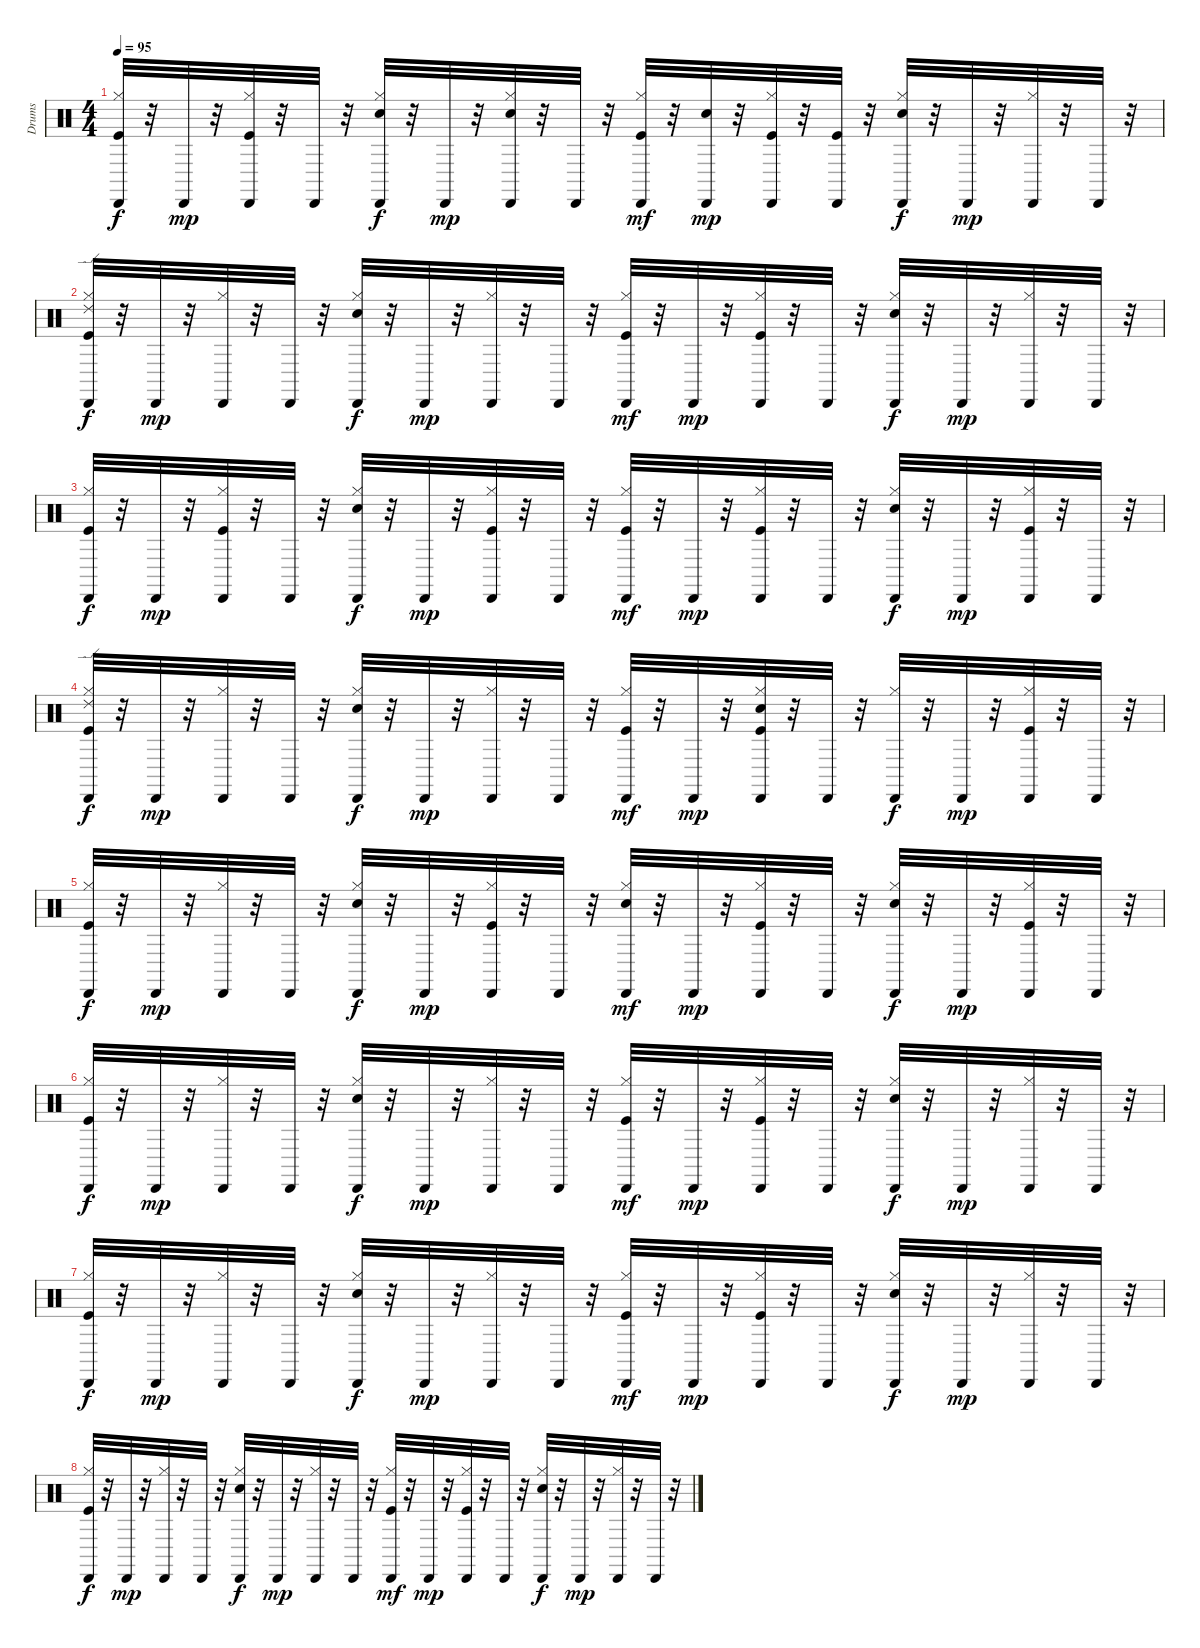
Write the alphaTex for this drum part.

\track ("Drums" "Drums") {instrument percussion}
\staff {score}
\articulation defaults
\ts (4 4)
\tempo 95
\clef neutral
\ks c
("Hi-Hat (closed)" "Kick (hit)" "Cabasa (hit)").32{dy f} r.32 "Cabasa (hit)".32{dy mp} r.32 ("Hi-Hat (closed)" "Kick (hit)" "Cabasa (hit)").32 r.32 "Cabasa (hit)".32 r.32 ("Hi-Hat (closed)" "Electric Snare (hit)" "Cabasa (hit)").32{dy f} r.32 "Cabasa (hit)".32{dy mp} r.32 ("Hi-Hat (closed)" "Electric Snare (hit)" "Cabasa (hit)").32 r.32 "Cabasa (hit)".32 r.32 ("Hi-Hat (closed)" "Kick (hit)" "Cabasa (hit)").32{dy mf} r.32 ("Electric Snare (hit)" "Cabasa (hit)").32{dy mp} r.32 ("Hi-Hat (closed)" "Kick (hit)" "Cabasa (hit)").32 r.32 ("Kick (hit)" "Cabasa (hit)").32 r.32 ("Hi-Hat (closed)" "Electric Snare (hit)" "Cabasa (hit)").32{dy f} r.32 "Cabasa (hit)".32{dy mp} r.32 ("Hi-Hat (closed)" "Cabasa (hit)").32 r.32 "Cabasa (hit)".32 r.32 |
("Kick (hit)" "Hi-Hat (closed)" "Ride (edge) 2" "Cabasa (hit)").32{dy f} r.32 "Cabasa (hit)".32{dy mp} r.32 ("Hi-Hat (closed)" "Cabasa (hit)").32 r.32 "Cabasa (hit)".32 r.32 ("Hi-Hat (closed)" "Electric Snare (hit)" "Cabasa (hit)").32{dy f} r.32 "Cabasa (hit)".32{dy mp} r.32 ("Hi-Hat (closed)" "Cabasa (hit)").32 r.32 "Cabasa (hit)".32 r.32 ("Hi-Hat (closed)" "Kick (hit)" "Cabasa (hit)").32{dy mf} r.32 "Cabasa (hit)".32{dy mp} r.32 ("Hi-Hat (closed)" "Kick (hit)" "Cabasa (hit)").32 r.32 "Cabasa (hit)".32 r.32 ("Hi-Hat (closed)" "Electric Snare (hit)" "Cabasa (hit)").32{dy f} r.32 "Cabasa (hit)".32{dy mp} r.32 ("Hi-Hat (closed)" "Cabasa (hit)").32 r.32 "Cabasa (hit)".32 r.32 |
("Hi-Hat (closed)" "Kick (hit)" "Cabasa (hit)").32{dy f} r.32 "Cabasa (hit)".32{dy mp} r.32 ("Hi-Hat (closed)" "Kick (hit)" "Cabasa (hit)").32 r.32 "Cabasa (hit)".32 r.32 ("Hi-Hat (closed)" "Electric Snare (hit)" "Cabasa (hit)").32{dy f} r.32 "Cabasa (hit)".32{dy mp} r.32 ("Hi-Hat (closed)" "Kick (hit)" "Cabasa (hit)").32 r.32 "Cabasa (hit)".32 r.32 ("Hi-Hat (closed)" "Kick (hit)" "Cabasa (hit)").32{dy mf} r.32 "Cabasa (hit)".32{dy mp} r.32 ("Hi-Hat (closed)" "Kick (hit)" "Cabasa (hit)").32 r.32 "Cabasa (hit)".32 r.32 ("Hi-Hat (closed)" "Electric Snare (hit)" "Cabasa (hit)").32{dy f} r.32 "Cabasa (hit)".32{dy mp} r.32 ("Hi-Hat (closed)" "Kick (hit)" "Cabasa (hit)").32 r.32 "Cabasa (hit)".32 r.32 |
("Kick (hit)" "Hi-Hat (closed)" "Ride (edge) 2" "Cabasa (hit)").32{dy f} r.32 "Cabasa (hit)".32{dy mp} r.32 ("Hi-Hat (closed)" "Cabasa (hit)").32 r.32 "Cabasa (hit)".32 r.32 ("Hi-Hat (closed)" "Electric Snare (hit)" "Cabasa (hit)").32{dy f} r.32 "Cabasa (hit)".32{dy mp} r.32 ("Hi-Hat (closed)" "Cabasa (hit)").32 r.32 "Cabasa (hit)".32 r.32 ("Hi-Hat (closed)" "Kick (hit)" "Cabasa (hit)").32{dy mf} r.32 "Cabasa (hit)".32{dy mp} r.32 ("Hi-Hat (closed)" "Electric Snare (hit)" "Kick (hit)" "Cabasa (hit)").32 r.32 "Cabasa (hit)".32 r.32 ("Hi-Hat (closed)" "Cabasa (hit)").32{dy f} r.32 "Cabasa (hit)".32{dy mp} r.32 ("Hi-Hat (closed)" "Kick (hit)" "Cabasa (hit)").32 r.32 "Cabasa (hit)".32 r.32 |
("Hi-Hat (closed)" "Kick (hit)" "Cabasa (hit)").32{dy f} r.32 "Cabasa (hit)".32{dy mp} r.32 ("Hi-Hat (closed)" "Cabasa (hit)").32 r.32 "Cabasa (hit)".32 r.32 ("Hi-Hat (closed)" "Electric Snare (hit)" "Cabasa (hit)").32{dy f} r.32 "Cabasa (hit)".32{dy mp} r.32 ("Hi-Hat (closed)" "Kick (hit)" "Cabasa (hit)").32 r.32 "Cabasa (hit)".32 r.32 ("Hi-Hat (closed)" "Electric Snare (hit)" "Cabasa (hit)").32{dy mf} r.32 "Cabasa (hit)".32{dy mp} r.32 ("Hi-Hat (closed)" "Kick (hit)" "Cabasa (hit)").32 r.32 "Cabasa (hit)".32 r.32 ("Hi-Hat (closed)" "Electric Snare (hit)" "Cabasa (hit)").32{dy f} r.32 "Cabasa (hit)".32{dy mp} r.32 ("Hi-Hat (closed)" "Kick (hit)" "Cabasa (hit)").32 r.32 "Cabasa (hit)".32 r.32 |
("Kick (hit)" "Hi-Hat (closed)" "Cabasa (hit)").32{dy f} r.32 "Cabasa (hit)".32{dy mp} r.32 ("Hi-Hat (closed)" "Cabasa (hit)").32 r.32 "Cabasa (hit)".32 r.32 ("Hi-Hat (closed)" "Electric Snare (hit)" "Cabasa (hit)").32{dy f} r.32 "Cabasa (hit)".32{dy mp} r.32 ("Hi-Hat (closed)" "Cabasa (hit)").32 r.32 "Cabasa (hit)".32 r.32 ("Hi-Hat (closed)" "Kick (hit)" "Cabasa (hit)").32{dy mf} r.32 "Cabasa (hit)".32{dy mp} r.32 ("Hi-Hat (closed)" "Kick (hit)" "Cabasa (hit)").32 r.32 "Cabasa (hit)".32 r.32 ("Hi-Hat (closed)" "Electric Snare (hit)" "Cabasa (hit)").32{dy f} r.32 "Cabasa (hit)".32{dy mp} r.32 ("Hi-Hat (closed)" "Cabasa (hit)").32 r.32 "Cabasa (hit)".32 r.32 |
("Hi-Hat (closed)" "Kick (hit)" "Cabasa (hit)").32{dy f} r.32 "Cabasa (hit)".32{dy mp} r.32 ("Hi-Hat (closed)" "Cabasa (hit)").32 r.32 "Cabasa (hit)".32 r.32 ("Hi-Hat (closed)" "Electric Snare (hit)" "Cabasa (hit)").32{dy f} r.32 "Cabasa (hit)".32{dy mp} r.32 ("Hi-Hat (closed)" "Cabasa (hit)").32 r.32 "Cabasa (hit)".32 r.32 ("Hi-Hat (closed)" "Kick (hit)" "Cabasa (hit)").32{dy mf} r.32 "Cabasa (hit)".32{dy mp} r.32 ("Hi-Hat (closed)" "Kick (hit)" "Cabasa (hit)").32 r.32 "Cabasa (hit)".32 r.32 ("Hi-Hat (closed)" "Electric Snare (hit)" "Cabasa (hit)").32{dy f} r.32 "Cabasa (hit)".32{dy mp} r.32 ("Hi-Hat (closed)" "Cabasa (hit)").32 r.32 "Cabasa (hit)".32 r.32 |
("Kick (hit)" "Hi-Hat (closed)" "Cabasa (hit)").32{dy f} r.32 "Cabasa (hit)".32{dy mp} r.32 ("Hi-Hat (closed)" "Cabasa (hit)").32 r.32 "Cabasa (hit)".32 r.32 ("Hi-Hat (closed)" "Electric Snare (hit)" "Cabasa (hit)").32{dy f} r.32 "Cabasa (hit)".32{dy mp} r.32 ("Hi-Hat (closed)" "Cabasa (hit)").32 r.32 "Cabasa (hit)".32 r.32 ("Hi-Hat (closed)" "Kick (hit)" "Cabasa (hit)").32{dy mf} r.32 "Cabasa (hit)".32{dy mp} r.32 ("Hi-Hat (closed)" "Kick (hit)" "Cabasa (hit)").32 r.32 "Cabasa (hit)".32 r.32 ("Hi-Hat (closed)" "Electric Snare (hit)" "Cabasa (hit)").32{dy f} r.32 "Cabasa (hit)".32{dy mp} r.32 ("Hi-Hat (closed)" "Cabasa (hit)").32 r.32 "Cabasa (hit)".32 r.32
